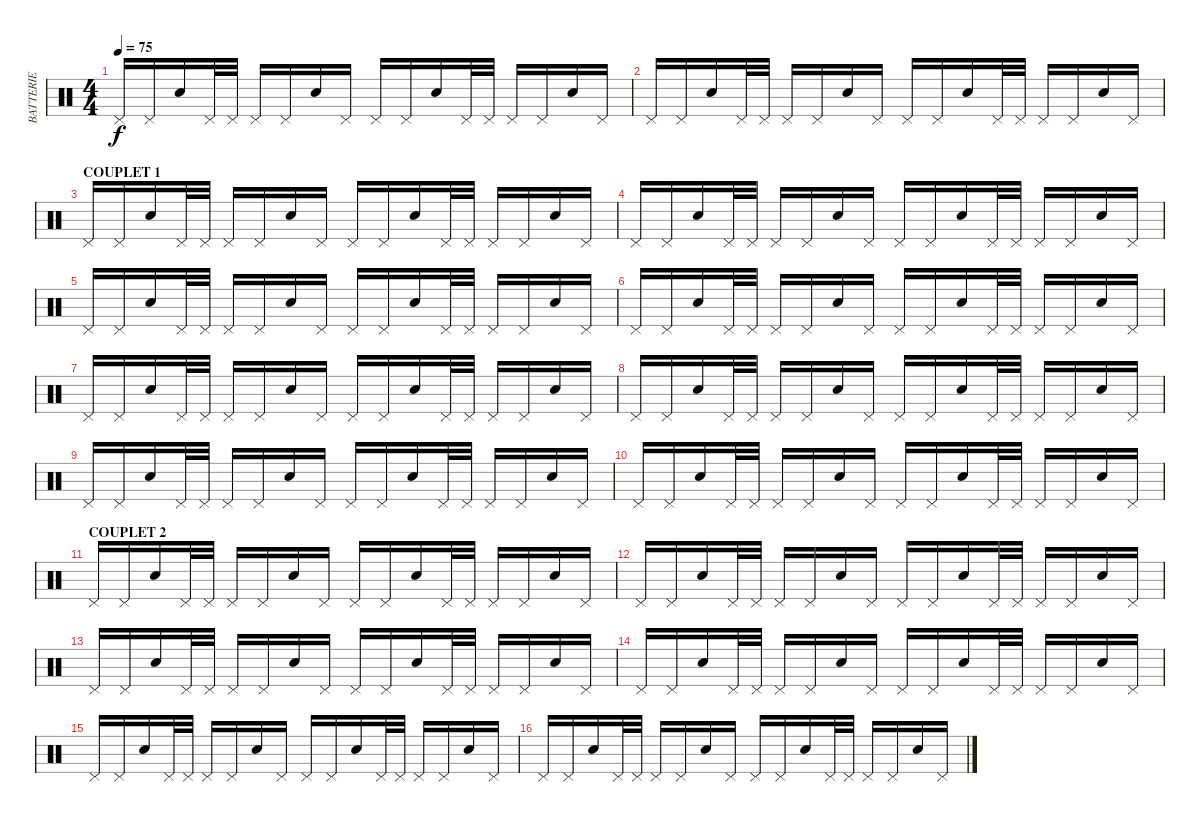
\track ("BATTERIE" "BATTERIE") {instrument percussion}
\staff {score}
\articulation defaults
\ts (4 4)
\tempo 75
\clef neutral
\ks c "Pedal Hi-Hat (hit)".16{dy f} "Pedal Hi-Hat (hit)".16 "Electric Snare (hit)".16 "Pedal Hi-Hat (hit)".32 "Pedal Hi-Hat (hit)".32 "Pedal Hi-Hat (hit)".16 "Pedal Hi-Hat (hit)".16 "Electric Snare (hit)".16 "Pedal Hi-Hat (hit)".16 "Pedal Hi-Hat (hit)".16 "Pedal Hi-Hat (hit)".16 "Electric Snare (hit)".16 "Pedal Hi-Hat (hit)".32 "Pedal Hi-Hat (hit)".32 "Pedal Hi-Hat (hit)".16 "Pedal Hi-Hat (hit)".16 "Electric Snare (hit)".16 "Pedal Hi-Hat (hit)".16
|
"Pedal Hi-Hat (hit)".16 "Pedal Hi-Hat (hit)".16 "Electric Snare (hit)".16 "Pedal Hi-Hat (hit)".32 "Pedal Hi-Hat (hit)".32 "Pedal Hi-Hat (hit)".16 "Pedal Hi-Hat (hit)".16 "Electric Snare (hit)".16 "Pedal Hi-Hat (hit)".16 "Pedal Hi-Hat (hit)".16 "Pedal Hi-Hat (hit)".16 "Electric Snare (hit)".16 "Pedal Hi-Hat (hit)".32 "Pedal Hi-Hat (hit)".32 "Pedal Hi-Hat (hit)".16 "Pedal Hi-Hat (hit)".16 "Electric Snare (hit)".16 "Pedal Hi-Hat (hit)".16 |
\section ("" "COUPLET 1")
"Pedal Hi-Hat (hit)".16 "Pedal Hi-Hat (hit)".16 "Electric Snare (hit)".16 "Pedal Hi-Hat (hit)".32 "Pedal Hi-Hat (hit)".32 "Pedal Hi-Hat (hit)".16 "Pedal Hi-Hat (hit)".16 "Electric Snare (hit)".16 "Pedal Hi-Hat (hit)".16 "Pedal Hi-Hat (hit)".16 "Pedal Hi-Hat (hit)".16 "Electric Snare (hit)".16 "Pedal Hi-Hat (hit)".32 "Pedal Hi-Hat (hit)".32 "Pedal Hi-Hat (hit)".16 "Pedal Hi-Hat (hit)".16 "Electric Snare (hit)".16 "Pedal Hi-Hat (hit)".16 |
"Pedal Hi-Hat (hit)".16 "Pedal Hi-Hat (hit)".16 "Electric Snare (hit)".16 "Pedal Hi-Hat (hit)".32 "Pedal Hi-Hat (hit)".32 "Pedal Hi-Hat (hit)".16 "Pedal Hi-Hat (hit)".16 "Electric Snare (hit)".16 "Pedal Hi-Hat (hit)".16 "Pedal Hi-Hat (hit)".16 "Pedal Hi-Hat (hit)".16 "Electric Snare (hit)".16 "Pedal Hi-Hat (hit)".32 "Pedal Hi-Hat (hit)".32 "Pedal Hi-Hat (hit)".16 "Pedal Hi-Hat (hit)".16 "Electric Snare (hit)".16 "Pedal Hi-Hat (hit)".16 |
"Pedal Hi-Hat (hit)".16 "Pedal Hi-Hat (hit)".16 "Electric Snare (hit)".16 "Pedal Hi-Hat (hit)".32 "Pedal Hi-Hat (hit)".32 "Pedal Hi-Hat (hit)".16 "Pedal Hi-Hat (hit)".16 "Electric Snare (hit)".16 "Pedal Hi-Hat (hit)".16 "Pedal Hi-Hat (hit)".16 "Pedal Hi-Hat (hit)".16 "Electric Snare (hit)".16 "Pedal Hi-Hat (hit)".32 "Pedal Hi-Hat (hit)".32 "Pedal Hi-Hat (hit)".16 "Pedal Hi-Hat (hit)".16 "Electric Snare (hit)".16 "Pedal Hi-Hat (hit)".16 |
"Pedal Hi-Hat (hit)".16 "Pedal Hi-Hat (hit)".16 "Electric Snare (hit)".16 "Pedal Hi-Hat (hit)".32 "Pedal Hi-Hat (hit)".32 "Pedal Hi-Hat (hit)".16 "Pedal Hi-Hat (hit)".16 "Electric Snare (hit)".16 "Pedal Hi-Hat (hit)".16 "Pedal Hi-Hat (hit)".16 "Pedal Hi-Hat (hit)".16 "Electric Snare (hit)".16 "Pedal Hi-Hat (hit)".32 "Pedal Hi-Hat (hit)".32 "Pedal Hi-Hat (hit)".16 "Pedal Hi-Hat (hit)".16 "Electric Snare (hit)".16 "Pedal Hi-Hat (hit)".16 |
"Pedal Hi-Hat (hit)".16 "Pedal Hi-Hat (hit)".16 "Electric Snare (hit)".16 "Pedal Hi-Hat (hit)".32 "Pedal Hi-Hat (hit)".32 "Pedal Hi-Hat (hit)".16 "Pedal Hi-Hat (hit)".16 "Electric Snare (hit)".16 "Pedal Hi-Hat (hit)".16 "Pedal Hi-Hat (hit)".16 "Pedal Hi-Hat (hit)".16 "Electric Snare (hit)".16 "Pedal Hi-Hat (hit)".32 "Pedal Hi-Hat (hit)".32 "Pedal Hi-Hat (hit)".16 "Pedal Hi-Hat (hit)".16 "Electric Snare (hit)".16 "Pedal Hi-Hat (hit)".16 |
"Pedal Hi-Hat (hit)".16 "Pedal Hi-Hat (hit)".16 "Electric Snare (hit)".16 "Pedal Hi-Hat (hit)".32 "Pedal Hi-Hat (hit)".32 "Pedal Hi-Hat (hit)".16 "Pedal Hi-Hat (hit)".16 "Electric Snare (hit)".16 "Pedal Hi-Hat (hit)".16 "Pedal Hi-Hat (hit)".16 "Pedal Hi-Hat (hit)".16 "Electric Snare (hit)".16 "Pedal Hi-Hat (hit)".32 "Pedal Hi-Hat (hit)".32 "Pedal Hi-Hat (hit)".16 "Pedal Hi-Hat (hit)".16 "Electric Snare (hit)".16 "Pedal Hi-Hat (hit)".16 |
"Pedal Hi-Hat (hit)".16 "Pedal Hi-Hat (hit)".16 "Electric Snare (hit)".16 "Pedal Hi-Hat (hit)".32 "Pedal Hi-Hat (hit)".32 "Pedal Hi-Hat (hit)".16 "Pedal Hi-Hat (hit)".16 "Electric Snare (hit)".16 "Pedal Hi-Hat (hit)".16 "Pedal Hi-Hat (hit)".16 "Pedal Hi-Hat (hit)".16 "Electric Snare (hit)".16 "Pedal Hi-Hat (hit)".32 "Pedal Hi-Hat (hit)".32 "Pedal Hi-Hat (hit)".16 "Pedal Hi-Hat (hit)".16 "Electric Snare (hit)".16 "Pedal Hi-Hat (hit)".16 |
"Pedal Hi-Hat (hit)".16 "Pedal Hi-Hat (hit)".16 "Electric Snare (hit)".16 "Pedal Hi-Hat (hit)".32 "Pedal Hi-Hat (hit)".32 "Pedal Hi-Hat (hit)".16 "Pedal Hi-Hat (hit)".16 "Electric Snare (hit)".16 "Pedal Hi-Hat (hit)".16 "Pedal Hi-Hat (hit)".16 "Pedal Hi-Hat (hit)".16 "Electric Snare (hit)".16 "Pedal Hi-Hat (hit)".32 "Pedal Hi-Hat (hit)".32 "Pedal Hi-Hat (hit)".16 "Pedal Hi-Hat (hit)".16 "Electric Snare (hit)".16 "Pedal Hi-Hat (hit)".16 |
\section ("" "COUPLET 2")
"Pedal Hi-Hat (hit)".16 "Pedal Hi-Hat (hit)".16 "Electric Snare (hit)".16 "Pedal Hi-Hat (hit)".32 "Pedal Hi-Hat (hit)".32 "Pedal Hi-Hat (hit)".16 "Pedal Hi-Hat (hit)".16 "Electric Snare (hit)".16 "Pedal Hi-Hat (hit)".16 "Pedal Hi-Hat (hit)".16 "Pedal Hi-Hat (hit)".16 "Electric Snare (hit)".16 "Pedal Hi-Hat (hit)".32 "Pedal Hi-Hat (hit)".32 "Pedal Hi-Hat (hit)".16 "Pedal Hi-Hat (hit)".16 "Electric Snare (hit)".16 "Pedal Hi-Hat (hit)".16 |
"Pedal Hi-Hat (hit)".16 "Pedal Hi-Hat (hit)".16 "Electric Snare (hit)".16 "Pedal Hi-Hat (hit)".32 "Pedal Hi-Hat (hit)".32 "Pedal Hi-Hat (hit)".16 "Pedal Hi-Hat (hit)".16 "Electric Snare (hit)".16 "Pedal Hi-Hat (hit)".16 "Pedal Hi-Hat (hit)".16 "Pedal Hi-Hat (hit)".16 "Electric Snare (hit)".16 "Pedal Hi-Hat (hit)".32 "Pedal Hi-Hat (hit)".32 "Pedal Hi-Hat (hit)".16 "Pedal Hi-Hat (hit)".16 "Electric Snare (hit)".16 "Pedal Hi-Hat (hit)".16 |
"Pedal Hi-Hat (hit)".16 "Pedal Hi-Hat (hit)".16 "Electric Snare (hit)".16 "Pedal Hi-Hat (hit)".32 "Pedal Hi-Hat (hit)".32 "Pedal Hi-Hat (hit)".16 "Pedal Hi-Hat (hit)".16 "Electric Snare (hit)".16 "Pedal Hi-Hat (hit)".16 "Pedal Hi-Hat (hit)".16 "Pedal Hi-Hat (hit)".16 "Electric Snare (hit)".16 "Pedal Hi-Hat (hit)".32 "Pedal Hi-Hat (hit)".32 "Pedal Hi-Hat (hit)".16 "Pedal Hi-Hat (hit)".16 "Electric Snare (hit)".16 "Pedal Hi-Hat (hit)".16 |
"Pedal Hi-Hat (hit)".16 "Pedal Hi-Hat (hit)".16 "Electric Snare (hit)".16 "Pedal Hi-Hat (hit)".32 "Pedal Hi-Hat (hit)".32 "Pedal Hi-Hat (hit)".16 "Pedal Hi-Hat (hit)".16 "Electric Snare (hit)".16 "Pedal Hi-Hat (hit)".16 "Pedal Hi-Hat (hit)".16 "Pedal Hi-Hat (hit)".16 "Electric Snare (hit)".16 "Pedal Hi-Hat (hit)".32 "Pedal Hi-Hat (hit)".32 "Pedal Hi-Hat (hit)".16 "Pedal Hi-Hat (hit)".16 "Electric Snare (hit)".16 "Pedal Hi-Hat (hit)".16 |
"Pedal Hi-Hat (hit)".16 "Pedal Hi-Hat (hit)".16 "Electric Snare (hit)".16 "Pedal Hi-Hat (hit)".32 "Pedal Hi-Hat (hit)".32 "Pedal Hi-Hat (hit)".16 "Pedal Hi-Hat (hit)".16 "Electric Snare (hit)".16 "Pedal Hi-Hat (hit)".16 "Pedal Hi-Hat (hit)".16 "Pedal Hi-Hat (hit)".16 "Electric Snare (hit)".16 "Pedal Hi-Hat (hit)".32 "Pedal Hi-Hat (hit)".32 "Pedal Hi-Hat (hit)".16 "Pedal Hi-Hat (hit)".16 "Electric Snare (hit)".16 "Pedal Hi-Hat (hit)".16 |
"Pedal Hi-Hat (hit)".16 "Pedal Hi-Hat (hit)".16 "Electric Snare (hit)".16 "Pedal Hi-Hat (hit)".32 "Pedal Hi-Hat (hit)".32 "Pedal Hi-Hat (hit)".16 "Pedal Hi-Hat (hit)".16 "Electric Snare (hit)".16 "Pedal Hi-Hat (hit)".16 "Pedal Hi-Hat (hit)".16 "Pedal Hi-Hat (hit)".16 "Electric Snare (hit)".16 "Pedal Hi-Hat (hit)".32 "Pedal Hi-Hat (hit)".32 "Pedal Hi-Hat (hit)".16 "Pedal Hi-Hat (hit)".16 "Electric Snare (hit)".16 "Pedal Hi-Hat (hit)".16
